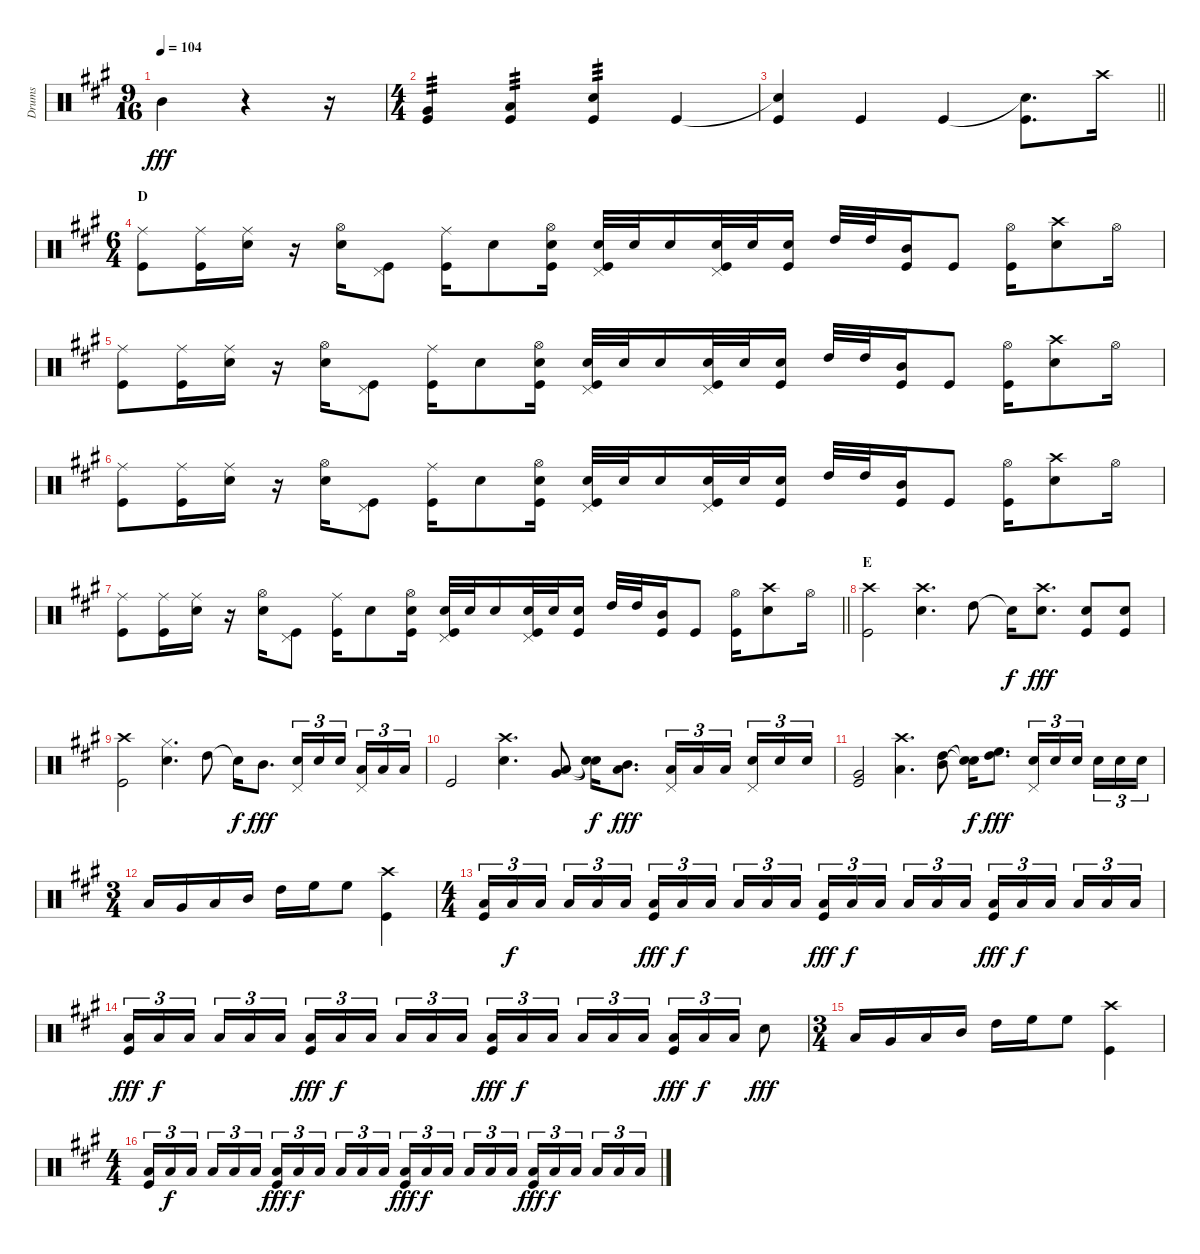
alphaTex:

\track ("Drums" "Drums") {instrument percussion}
\staff {score}
\articulation defaults
\ts (9 16)
\tempo 104
\clef neutral
\ks a "Mid Tom (hit)".4{dy fff}
r.4 r.16 |
\ts (4 4)
("Very Low Tom (hit)" "Kick (hit)").4{tp 3} ("Low Tom (hit)" "Kick (hit)").4{tp 3} ("Snare (hit) 2" "Kick (hit)").4{tp 3} "Kick (hit)".4 |
\barLineRight lightlight
("Snare (hit)"{t} "Kick (hit)").4 "Kick (hit)".4 "Kick (hit)".4 ("Snare (hit)"{t} "Kick (hit)").8{d} "Crash high (hit)".16 |
\ts (6 4)
\section ("" "D")
("Ride (middle)" "Kick (hit)").8 ("Ride (middle)" "Kick (hit)").16 ("Ride (middle)" "Snare (hit) 2").16 r.16 ("Hi-Hat (open)" "Snare (hit) 2").16 ("Pedal Hi-Hat (hit)" "Kick (hit)").8 ("Ride (middle)" "Kick (hit)").16 "Snare (hit) 2".8 ("Hi-Hat (open)" "Snare (hit) 2" "Kick (hit)").16 ("Pedal Hi-Hat (hit)" "Snare (hit) 2" "Kick (hit)").32 "Snare (hit) 2".32 "Snare (hit) 2".16 ("Pedal Hi-Hat (hit)" "Snare (hit) 2" "Kick (hit)").32 "Snare (hit) 2".32 ("Snare (hit) 2" "Kick (hit)").16 "High Tom (hit)".32 "High Tom (hit)".32 ("Mid Tom (hit)" "Kick (hit)").16 "Kick (hit)".8 ("Hi-Hat (open)" "Kick (hit)").16 ("Crash high (hit)" "Snare (hit) 2").8 "Hi-Hat (open)".16 |
("Ride (middle)" "Kick (hit)").8 ("Ride (middle)" "Kick (hit)").16 ("Ride (middle)" "Snare (hit) 2").16 r.16 ("Hi-Hat (open)" "Snare (hit) 2").16 ("Pedal Hi-Hat (hit)" "Kick (hit)").8 ("Ride (middle)" "Kick (hit)").16 "Snare (hit) 2".8 ("Hi-Hat (open)" "Snare (hit) 2" "Kick (hit)").16 ("Pedal Hi-Hat (hit)" "Snare (hit) 2" "Kick (hit)").32 "Snare (hit) 2".32 "Snare (hit) 2".16 ("Pedal Hi-Hat (hit)" "Snare (hit) 2" "Kick (hit)").32 "Snare (hit) 2".32 ("Snare (hit) 2" "Kick (hit)").16 "High Tom (hit)".32 "High Tom (hit)".32 ("Mid Tom (hit)" "Kick (hit)").16 "Kick (hit)".8 ("Hi-Hat (open)" "Kick (hit)").16 ("Crash high (hit)" "Snare (hit) 2").8 "Hi-Hat (open)".16 |
("Ride (middle)" "Kick (hit)").8 ("Ride (middle)" "Kick (hit)").16 ("Ride (middle)" "Snare (hit) 2").16 r.16 ("Hi-Hat (open)" "Snare (hit) 2").16 ("Pedal Hi-Hat (hit)" "Kick (hit)").8 ("Ride (middle)" "Kick (hit)").16 "Snare (hit) 2".8 ("Hi-Hat (open)" "Snare (hit) 2" "Kick (hit)").16 ("Pedal Hi-Hat (hit)" "Snare (hit) 2" "Kick (hit)").32 "Snare (hit) 2".32 "Snare (hit) 2".16 ("Pedal Hi-Hat (hit)" "Snare (hit) 2" "Kick (hit)").32 "Snare (hit) 2".32 ("Snare (hit) 2" "Kick (hit)").16 "High Tom (hit)".32 "High Tom (hit)".32 ("Mid Tom (hit)" "Kick (hit)").16 "Kick (hit)".8 ("Hi-Hat (open)" "Kick (hit)").16 ("Crash high (hit)" "Snare (hit) 2").8 "Hi-Hat (open)".16 |
\barLineRight lightlight
("Ride (middle)" "Kick (hit)").8 ("Ride (middle)" "Kick (hit)").16 ("Ride (middle)" "Snare (hit) 2").16 r.16 ("Hi-Hat (open)" "Snare (hit) 2").16 ("Pedal Hi-Hat (hit)" "Kick (hit)").8 ("Ride (middle)" "Kick (hit)").16 "Snare (hit) 2".8 ("Hi-Hat (open)" "Snare (hit) 2" "Kick (hit)").16 ("Pedal Hi-Hat (hit)" "Snare (hit) 2" "Kick (hit)").32 "Snare (hit) 2".32 "Snare (hit) 2".16 ("Pedal Hi-Hat (hit)" "Snare (hit) 2" "Kick (hit)").32 "Snare (hit) 2".32 ("Snare (hit) 2" "Kick (hit)").16 "High Tom (hit)".32 "High Tom (hit)".32 ("Mid Tom (hit)" "Kick (hit)").16 "Kick (hit)".8 ("Hi-Hat (open)" "Kick (hit)").16 ("Crash high (hit)" "Snare (hit) 2").8 "Hi-Hat (open)".16 |
\section ("" "E")
("Crash high (hit)" "Kick (hit)").2 ("Crash high (hit)" "Snare (hit) 2").4{d} "High Tom (hit)".8 "Snare (hit)"{t}.16{dy f} ("Crash high (hit)" "Snare (hit) 2").8{d dy fff} ("Snare (hit) 2" "Kick (hit)").8 ("Snare (hit) 2" "Kick (hit)").8 |
("Crash high (hit)" "Kick (hit)").2 ("Hi-Hat (closed)" "Snare (hit) 2").4{d} "High Tom (hit)".8 "Snare (hit)"{t}.16{dy f} "Mid Tom (hit)".8{d dy fff} ("Pedal Hi-Hat (hit)" "Snare (hit) 2").16{tu (3 2)} "Snare (hit) 2".16{tu (3 2)} "Snare (hit) 2".16{tu (3 2)} ("Pedal Hi-Hat (hit)" "Low Tom (hit)").16{tu (3 2)} "Low Tom (hit)".16{tu (3 2)} "Low Tom (hit)".16{tu (3 2)} |
"Kick (hit)".2 ("Crash high (hit)" "Snare (hit) 2").4{d} ("Low Tom (hit)" "Very Low Tom (hit)").8 ("Snare (hit)"{t} "Snare (hit)"{t}).16{dy f} ("Mid Tom (hit)" "Low Tom (hit)").8{d dy fff} ("Pedal Hi-Hat (hit)" "Low Tom (hit)").16{tu (3 2)} "Low Tom (hit)".16{tu (3 2)} "Low Tom (hit)".16{tu (3 2)} ("Pedal Hi-Hat (hit)" "Snare (hit) 2").16{tu (3 2)} "Snare (hit) 2".16{tu (3 2)} "Snare (hit) 2".16{tu (3 2)} |
("Very Low Tom (hit)" "Kick (hit)").2 ("Crash high (hit)" "Low Floor Tom (hit)").4{d} ("High Tom (hit)" "Mid Tom (hit)").8 ("Snare (hit)"{t} "Snare (hit)"{t}).16{dy f} ("High Floor Tom (hit)" "High Tom (hit)").8{d dy fff} ("Pedal Hi-Hat (hit)" "Snare (hit) 2").16{tu (3 2)} "Snare (hit) 2".16{tu (3 2)} "Snare (hit) 2".16{tu (3 2)} "Snare (hit) 2".16{tu (3 2)} "Snare (hit) 2".16{tu (3 2)} "Snare (hit) 2".16{tu (3 2)} |
\ts (3 4)
"Low Floor Tom (hit)".16 "Very Low Tom (hit)".16 "Low Tom (hit)".16 "Mid Tom (hit)".16 "High Tom (hit)".16 "High Floor Tom (hit)".16 "High Floor Tom (hit)".8 ("Crash high (hit)" "Kick (hit)").4 |
\ts (4 4)
("Low Tom (hit)" "Kick (hit)").16{tu (3 2)} "Low Tom (hit)".16{tu (3 2) dy f} "Low Tom (hit)".16{tu (3 2)} "Low Tom (hit)".16{tu (3 2)} "Low Tom (hit)".16{tu (3 2)} "Low Tom (hit)".16{tu (3 2)} ("Low Tom (hit)" "Kick (hit)").16{tu (3 2) dy fff} "Low Tom (hit)".16{tu (3 2) dy f} "Low Tom (hit)".16{tu (3 2)} "Low Tom (hit)".16{tu (3 2)} "Low Tom (hit)".16{tu (3 2)} "Low Tom (hit)".16{tu (3 2)} ("Low Tom (hit)" "Kick (hit)").16{tu (3 2) dy fff} "Low Tom (hit)".16{tu (3 2) dy f} "Low Tom (hit)".16{tu (3 2)} "Low Tom (hit)".16{tu (3 2)} "Low Tom (hit)".16{tu (3 2)} "Low Tom (hit)".16{tu (3 2)} ("Low Tom (hit)" "Kick (hit)").16{tu (3 2) dy fff} "Low Tom (hit)".16{tu (3 2) dy f} "Low Tom (hit)".16{tu (3 2)} "Low Tom (hit)".16{tu (3 2)} "Low Tom (hit)".16{tu (3 2)} "Low Tom (hit)".16{tu (3 2)} |
("Low Tom (hit)" "Kick (hit)").16{tu (3 2) dy fff} "Low Tom (hit)".16{tu (3 2) dy f} "Low Tom (hit)".16{tu (3 2)} "Low Tom (hit)".16{tu (3 2)} "Low Tom (hit)".16{tu (3 2)} "Low Tom (hit)".16{tu (3 2)} ("Low Tom (hit)" "Kick (hit)").16{tu (3 2) dy fff} "Low Tom (hit)".16{tu (3 2) dy f} "Low Tom (hit)".16{tu (3 2)} "Low Tom (hit)".16{tu (3 2)} "Low Tom (hit)".16{tu (3 2)} "Low Tom (hit)".16{tu (3 2)} ("Low Tom (hit)" "Kick (hit)").16{tu (3 2) dy fff} "Low Tom (hit)".16{tu (3 2) dy f} "Low Tom (hit)".16{tu (3 2)} "Low Tom (hit)".16{tu (3 2)} "Low Tom (hit)".16{tu (3 2)} "Low Tom (hit)".16{tu (3 2)} ("Low Tom (hit)" "Kick (hit)").16{tu (3 2) dy fff} "Low Tom (hit)".16{tu (3 2) dy f} "Low Tom (hit)".16{tu (3 2)} "Snare (hit) 2".8{dy fff} |
\ts (3 4)
"Low Floor Tom (hit)".16 "Very Low Tom (hit)".16 "Low Tom (hit)".16 "Mid Tom (hit)".16 "High Tom (hit)".16 "High Floor Tom (hit)".16 "High Floor Tom (hit)".8 ("Crash high (hit)" "Kick (hit)").4 |
\ts (4 4)
("Low Tom (hit)" "Kick (hit)").16{tu (3 2)} "Low Tom (hit)".16{tu (3 2) dy f} "Low Tom (hit)".16{tu (3 2)} "Low Tom (hit)".16{tu (3 2)} "Low Tom (hit)".16{tu (3 2)} "Low Tom (hit)".16{tu (3 2)} ("Low Tom (hit)" "Kick (hit)").16{tu (3 2) dy fff} "Low Tom (hit)".16{tu (3 2) dy f} "Low Tom (hit)".16{tu (3 2)} "Low Tom (hit)".16{tu (3 2)} "Low Tom (hit)".16{tu (3 2)} "Low Tom (hit)".16{tu (3 2)} ("Low Tom (hit)" "Kick (hit)").16{tu (3 2) dy fff} "Low Tom (hit)".16{tu (3 2) dy f} "Low Tom (hit)".16{tu (3 2)} "Low Tom (hit)".16{tu (3 2)} "Low Tom (hit)".16{tu (3 2)} "Low Tom (hit)".16{tu (3 2)} ("Low Tom (hit)" "Kick (hit)").16{tu (3 2) dy fff} "Low Tom (hit)".16{tu (3 2) dy f} "Low Tom (hit)".16{tu (3 2)} "Low Tom (hit)".16{tu (3 2)} "Low Tom (hit)".16{tu (3 2)} "Low Tom (hit)".16{tu (3 2)}
